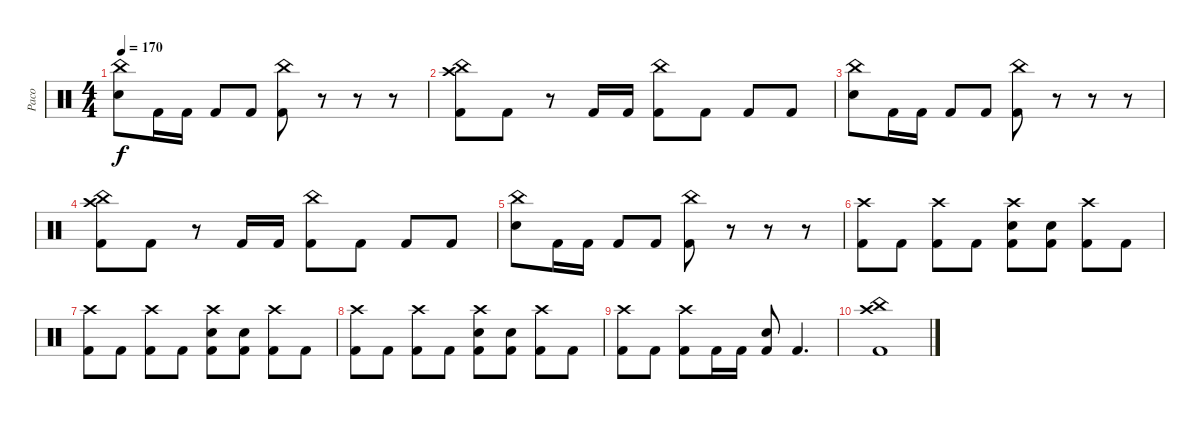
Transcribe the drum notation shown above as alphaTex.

\track ("Paco" "Paco") {instrument percussion}
\staff {score}
\articulation defaults
\ts (4 4)
\tempo 170
\clef neutral
\ks c
("China (hit)" "Electric Snare (hit)").8{dy f} "Kick (hit) 2".16 "Kick (hit) 2".16 "Kick (hit) 2".8 "Kick (hit) 2".8 ("China (hit)" "Kick (hit) 2").8 r.8 r.8 r.8 |
("China (hit)" "Crash high (hit)" "Kick (hit) 2").8 "Kick (hit) 2".8 r.8 "Kick (hit) 2".16 "Kick (hit) 2".16 ("China (hit)" "Kick (hit) 2").8 "Kick (hit) 2".8 "Kick (hit) 2".8 "Kick (hit) 2".8 |
("China (hit)" "Electric Snare (hit)").8 "Kick (hit) 2".16 "Kick (hit) 2".16 "Kick (hit) 2".8 "Kick (hit) 2".8 ("China (hit)" "Kick (hit) 2").8 r.8 r.8 r.8 |
("China (hit)" "Crash high (hit)" "Kick (hit) 2").8 "Kick (hit) 2".8 r.8 "Kick (hit) 2".16 "Kick (hit) 2".16 ("China (hit)" "Kick (hit) 2").8 "Kick (hit) 2".8 "Kick (hit) 2".8 "Kick (hit) 2".8 |
("China (hit)" "Electric Snare (hit)").8 "Kick (hit) 2".16 "Kick (hit) 2".16 "Kick (hit) 2".8 "Kick (hit) 2".8 ("China (hit)" "Kick (hit) 2").8 r.8 r.8 r.8 |
("Crash high (hit)" "Kick (hit) 2").8 "Kick (hit) 2".8 ("Crash high (hit)" "Kick (hit) 2").8 "Kick (hit) 2".8 ("Crash high (hit)" "Electric Snare (hit)" "Kick (hit) 2").8 ("Electric Snare (hit)" "Kick (hit) 2").8 ("Crash high (hit)" "Kick (hit) 2").8 "Kick (hit) 2".8 |
("Crash high (hit)" "Kick (hit) 2").8 "Kick (hit) 2".8 ("Crash high (hit)" "Kick (hit) 2").8 "Kick (hit) 2".8 ("Crash high (hit)" "Electric Snare (hit)" "Kick (hit) 2").8 ("Electric Snare (hit)" "Kick (hit) 2").8 ("Crash high (hit)" "Kick (hit) 2").8 "Kick (hit) 2".8 |
("Crash high (hit)" "Kick (hit) 2").8 "Kick (hit) 2".8 ("Crash high (hit)" "Kick (hit) 2").8 "Kick (hit) 2".8 ("Crash high (hit)" "Electric Snare (hit)" "Kick (hit) 2").8 ("Electric Snare (hit)" "Kick (hit) 2").8 ("Crash high (hit)" "Kick (hit) 2").8 "Kick (hit) 2".8 |
("Crash high (hit)" "Kick (hit) 2").8 "Kick (hit) 2".8 ("Crash high (hit)" "Kick (hit) 2").8 "Kick (hit) 2".16 "Kick (hit) 2".16 ("Electric Snare (hit)" "Kick (hit) 2").8 "Kick (hit) 2".4{d} |
("Crash high (hit)" "China (hit)" "Kick (hit) 2").1
